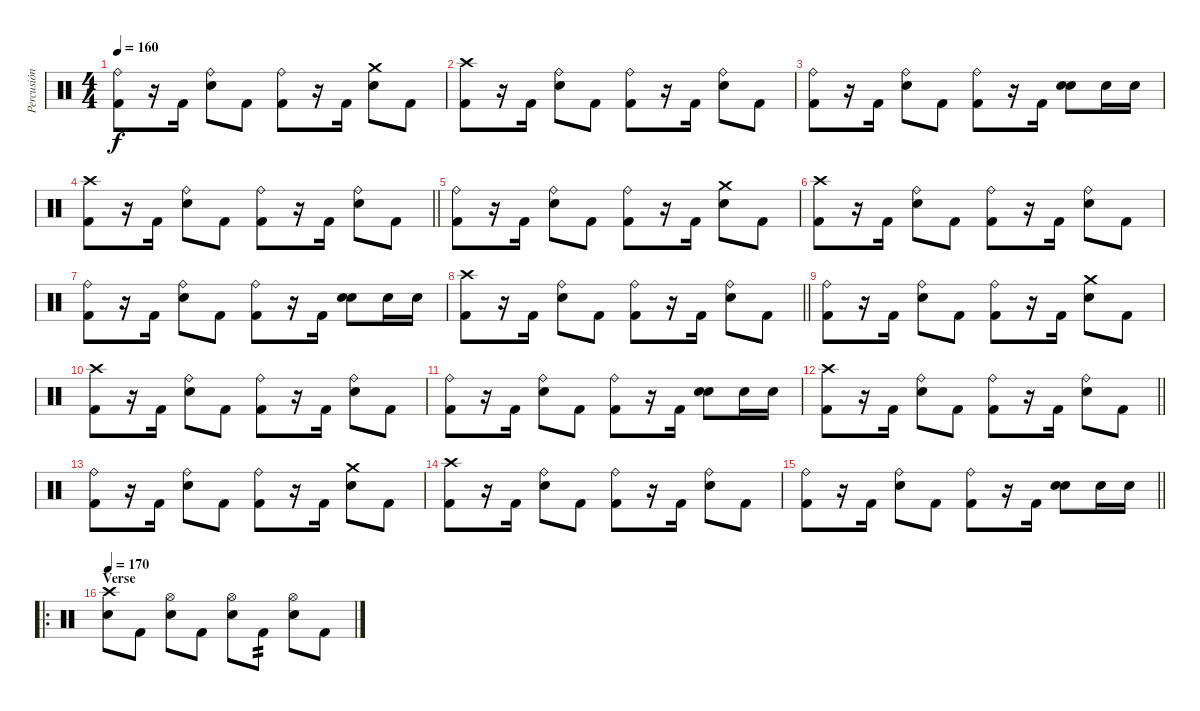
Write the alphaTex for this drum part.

\track ("Percusión" "Percusión") {instrument percussion}
\staff
\articulation defaults
\ts (4 4)
\tempo 160
\clef neutral
\ks c
("Kick (hit) 2" "Ride (bell)").8{dy f} r.16 "Kick (hit) 2".16 ("Electric Snare (hit)" "Ride (bell)").8 "Kick (hit) 2".8 ("Kick (hit) 2" "Ride (bell)").8 r.16 "Kick (hit) 2".16 ("Electric Snare (hit)" "Crash medium (hit)").8 "Kick (hit) 2".8 |
("Kick (hit) 2" "Crash high (hit)").8 r.16 "Kick (hit) 2".16 ("Electric Snare (hit)" "Ride (bell)").8 "Kick (hit) 2".8 ("Kick (hit) 2" "Ride (bell)").8 r.16 "Kick (hit) 2".16 ("Electric Snare (hit)" "Ride (bell)").8 "Kick (hit) 2".8 |
("Kick (hit) 2" "Ride (bell)").8 r.16 "Kick (hit) 2".16 ("Electric Snare (hit)" "Ride (bell)").8 "Kick (hit) 2".8 ("Kick (hit) 2" "Ride (bell)").8 r.16 "Kick (hit) 2".16 ("Electric Snare (hit)" "Snare (hit) 2").8 "Electric Snare (hit)".16 "Electric Snare (hit)".16 |
\barLineRight lightlight
("Kick (hit) 2" "Crash high (hit)").8 r.16 "Kick (hit) 2".16 ("Electric Snare (hit)" "Ride (bell)").8 "Kick (hit) 2".8 ("Kick (hit) 2" "Ride (bell)").8 r.16 "Kick (hit) 2".16 ("Electric Snare (hit)" "Ride (bell)").8 "Kick (hit) 2".8 |
("Kick (hit) 2" "Ride (bell)").8 r.16 "Kick (hit) 2".16 ("Electric Snare (hit)" "Ride (bell)").8 "Kick (hit) 2".8 ("Kick (hit) 2" "Ride (bell)").8 r.16 "Kick (hit) 2".16 ("Electric Snare (hit)" "Crash medium (hit)").8 "Kick (hit) 2".8 |
("Kick (hit) 2" "Crash high (hit)").8 r.16 "Kick (hit) 2".16 ("Electric Snare (hit)" "Ride (bell)").8 "Kick (hit) 2".8 ("Kick (hit) 2" "Ride (bell)").8 r.16 "Kick (hit) 2".16 ("Electric Snare (hit)" "Ride (bell)").8 "Kick (hit) 2".8 |
("Kick (hit) 2" "Ride (bell)").8 r.16 "Kick (hit) 2".16 ("Electric Snare (hit)" "Ride (bell)").8 "Kick (hit) 2".8 ("Kick (hit) 2" "Ride (bell)").8 r.16 "Kick (hit) 2".16 ("Electric Snare (hit)" "Snare (hit) 2").8 "Electric Snare (hit)".16 "Electric Snare (hit)".16 |
\barLineRight lightlight
("Kick (hit) 2" "Crash high (hit)").8 r.16 "Kick (hit) 2".16 ("Electric Snare (hit)" "Ride (bell)").8 "Kick (hit) 2".8 ("Kick (hit) 2" "Ride (bell)").8 r.16 "Kick (hit) 2".16 ("Electric Snare (hit)" "Ride (bell)").8 "Kick (hit) 2".8 |
("Kick (hit) 2" "Ride (bell)").8 r.16 "Kick (hit) 2".16 ("Electric Snare (hit)" "Ride (bell)").8 "Kick (hit) 2".8 ("Kick (hit) 2" "Ride (bell)").8 r.16 "Kick (hit) 2".16 ("Electric Snare (hit)" "Crash medium (hit)").8 "Kick (hit) 2".8 |
("Kick (hit) 2" "Crash high (hit)").8 r.16 "Kick (hit) 2".16 ("Electric Snare (hit)" "Ride (bell)").8 "Kick (hit) 2".8 ("Kick (hit) 2" "Ride (bell)").8 r.16 "Kick (hit) 2".16 ("Electric Snare (hit)" "Ride (bell)").8 "Kick (hit) 2".8 |
("Kick (hit) 2" "Ride (bell)").8 r.16 "Kick (hit) 2".16 ("Electric Snare (hit)" "Ride (bell)").8 "Kick (hit) 2".8 ("Kick (hit) 2" "Ride (bell)").8 r.16 "Kick (hit) 2".16 ("Electric Snare (hit)" "Snare (hit) 2").8 "Electric Snare (hit)".16 "Electric Snare (hit)".16 |
\barLineRight lightlight
("Kick (hit) 2" "Crash high (hit)").8 r.16 "Kick (hit) 2".16 ("Electric Snare (hit)" "Ride (bell)").8 "Kick (hit) 2".8 ("Kick (hit) 2" "Ride (bell)").8 r.16 "Kick (hit) 2".16 ("Electric Snare (hit)" "Ride (bell)").8 "Kick (hit) 2".8 |
("Kick (hit) 2" "Ride (bell)").8 r.16 "Kick (hit) 2".16 ("Electric Snare (hit)" "Ride (bell)").8 "Kick (hit) 2".8 ("Kick (hit) 2" "Ride (bell)").8 r.16 "Kick (hit) 2".16 ("Electric Snare (hit)" "Crash medium (hit)").8 "Kick (hit) 2".8 |
("Kick (hit) 2" "Crash high (hit)").8 r.16 "Kick (hit) 2".16 ("Electric Snare (hit)" "Ride (bell)").8 "Kick (hit) 2".8 ("Kick (hit) 2" "Ride (bell)").8 r.16 "Kick (hit) 2".16 ("Electric Snare (hit)" "Ride (bell)").8 "Kick (hit) 2".8 |
\barLineRight lightlight
("Kick (hit) 2" "Ride (bell)").8 r.16 "Kick (hit) 2".16 ("Electric Snare (hit)" "Ride (bell)").8 "Kick (hit) 2".8 ("Kick (hit) 2" "Ride (bell)").8 r.16 "Kick (hit) 2".16 ("Electric Snare (hit)" "Snare (hit) 2").8 "Electric Snare (hit)".16 "Electric Snare (hit)".16 |
\ro
\section ("" "Verse")
\tempo 170
("Electric Snare (hit)" "Crash high (hit)").8 "Kick (hit) 2".8 ("Electric Snare (hit)" "Hi-Hat (open)").8 "Kick (hit) 2".8 ("Electric Snare (hit)" "Hi-Hat (open)").8 "Kick (hit) 2".8{tp 2} ("Electric Snare (hit)" "Hi-Hat (open)").8 "Kick (hit) 2".8
